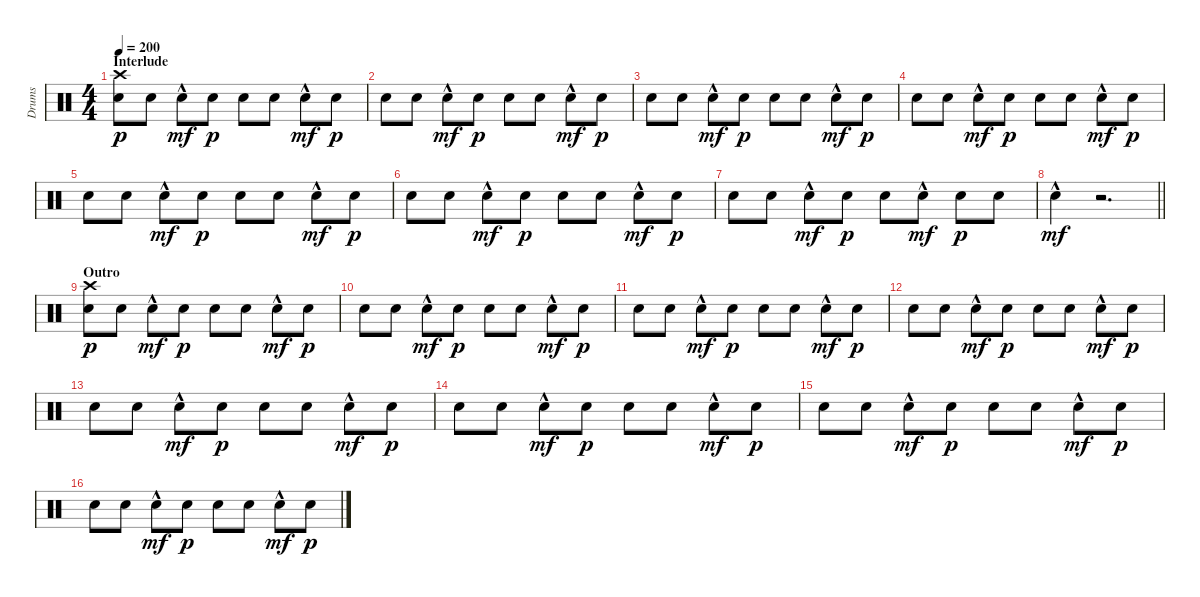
\track ("Drums" "Drums") {instrument percussion}
\staff {score}
\articulation defaults
\ts (4 4)
\section ("" "Interlude")
\tempo 200
\clef neutral
\ks c
("Crash high (hit)" "Electric Snare (hit)").8{dy p} "Electric Snare (hit)".8 "Electric Snare (hit)"{hac}.8{dy mf} "Electric Snare (hit)".8{dy p} "Electric Snare (hit)".8 "Electric Snare (hit)".8 "Electric Snare (hit)"{hac}.8{dy mf} "Electric Snare (hit)".8{dy p} |
"Electric Snare (hit)".8 "Electric Snare (hit)".8 "Electric Snare (hit)"{hac}.8{dy mf} "Electric Snare (hit)".8{dy p} "Electric Snare (hit)".8 "Electric Snare (hit)".8 "Electric Snare (hit)"{hac}.8{dy mf} "Electric Snare (hit)".8{dy p} |
"Electric Snare (hit)".8 "Electric Snare (hit)".8 "Electric Snare (hit)"{hac}.8{dy mf} "Electric Snare (hit)".8{dy p} "Electric Snare (hit)".8 "Electric Snare (hit)".8 "Electric Snare (hit)"{hac}.8{dy mf} "Electric Snare (hit)".8{dy p} |
"Electric Snare (hit)".8 "Electric Snare (hit)".8 "Electric Snare (hit)"{hac}.8{dy mf} "Electric Snare (hit)".8{dy p} "Electric Snare (hit)".8 "Electric Snare (hit)".8 "Electric Snare (hit)"{hac}.8{dy mf} "Electric Snare (hit)".8{dy p} |
"Electric Snare (hit)".8 "Electric Snare (hit)".8 "Electric Snare (hit)"{hac}.8{dy mf} "Electric Snare (hit)".8{dy p} "Electric Snare (hit)".8 "Electric Snare (hit)".8 "Electric Snare (hit)"{hac}.8{dy mf} "Electric Snare (hit)".8{dy p} |
"Electric Snare (hit)".8 "Electric Snare (hit)".8 "Electric Snare (hit)"{hac}.8{dy mf} "Electric Snare (hit)".8{dy p} "Electric Snare (hit)".8 "Electric Snare (hit)".8 "Electric Snare (hit)"{hac}.8{dy mf} "Electric Snare (hit)".8{dy p} |
"Electric Snare (hit)".8 "Electric Snare (hit)".8 "Electric Snare (hit)"{hac}.8{dy mf} "Electric Snare (hit)".8{dy p} "Electric Snare (hit)".8 "Electric Snare (hit)"{hac}.8{dy mf} "Electric Snare (hit)".8{dy p} "Electric Snare (hit)".8 |
\barLineRight lightlight "Electric Snare (hit)"{hac}.4{dy mf}
r.2{d} |
\section ("" "Outro")
("Crash high (hit)" "Electric Snare (hit)").8{dy p} "Electric Snare (hit)".8 "Electric Snare (hit)"{hac}.8{dy mf} "Electric Snare (hit)".8{dy p} "Electric Snare (hit)".8 "Electric Snare (hit)".8 "Electric Snare (hit)"{hac}.8{dy mf} "Electric Snare (hit)".8{dy p} |
"Electric Snare (hit)".8 "Electric Snare (hit)".8 "Electric Snare (hit)"{hac}.8{dy mf} "Electric Snare (hit)".8{dy p} "Electric Snare (hit)".8 "Electric Snare (hit)".8 "Electric Snare (hit)"{hac}.8{dy mf} "Electric Snare (hit)".8{dy p} |
"Electric Snare (hit)".8 "Electric Snare (hit)".8 "Electric Snare (hit)"{hac}.8{dy mf} "Electric Snare (hit)".8{dy p} "Electric Snare (hit)".8 "Electric Snare (hit)".8 "Electric Snare (hit)"{hac}.8{dy mf} "Electric Snare (hit)".8{dy p} |
"Electric Snare (hit)".8 "Electric Snare (hit)".8 "Electric Snare (hit)"{hac}.8{dy mf} "Electric Snare (hit)".8{dy p} "Electric Snare (hit)".8 "Electric Snare (hit)".8 "Electric Snare (hit)"{hac}.8{dy mf} "Electric Snare (hit)".8{dy p} |
"Electric Snare (hit)".8 "Electric Snare (hit)".8 "Electric Snare (hit)"{hac}.8{dy mf} "Electric Snare (hit)".8{dy p} "Electric Snare (hit)".8 "Electric Snare (hit)".8 "Electric Snare (hit)"{hac}.8{dy mf} "Electric Snare (hit)".8{dy p} |
"Electric Snare (hit)".8 "Electric Snare (hit)".8 "Electric Snare (hit)"{hac}.8{dy mf} "Electric Snare (hit)".8{dy p} "Electric Snare (hit)".8 "Electric Snare (hit)".8 "Electric Snare (hit)"{hac}.8{dy mf} "Electric Snare (hit)".8{dy p} |
"Electric Snare (hit)".8 "Electric Snare (hit)".8 "Electric Snare (hit)"{hac}.8{dy mf} "Electric Snare (hit)".8{dy p} "Electric Snare (hit)".8 "Electric Snare (hit)".8 "Electric Snare (hit)"{hac}.8{dy mf} "Electric Snare (hit)".8{dy p} |
"Electric Snare (hit)".8 "Electric Snare (hit)".8 "Electric Snare (hit)"{hac}.8{dy mf} "Electric Snare (hit)".8{dy p} "Electric Snare (hit)".8 "Electric Snare (hit)".8 "Electric Snare (hit)"{hac}.8{dy mf} "Electric Snare (hit)".8{dy p}
